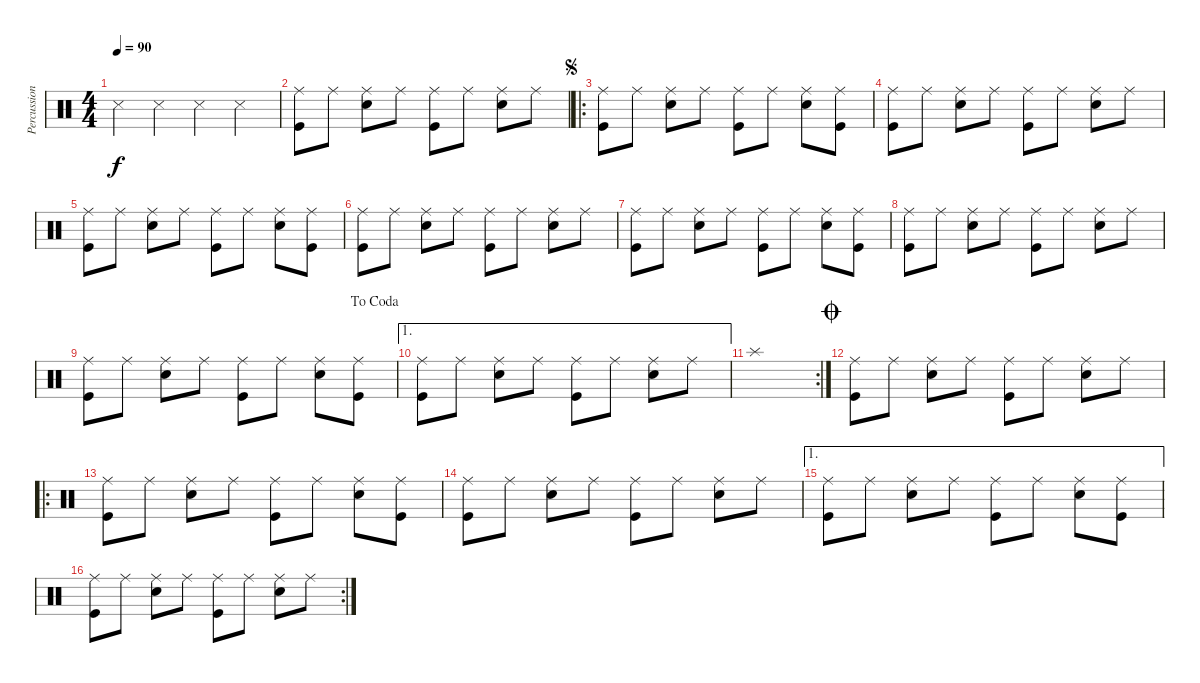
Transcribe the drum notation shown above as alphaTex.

\track ("Percussions" "Percussion") {instrument percussion}
\staff {score}
\articulation defaults
\ts (4 4)
\tempo 90
\clef neutral
\ks c "Snare (side stick) 3".4{dy f} "Snare (side stick) 3".4 "Snare (side stick) 3".4 "Snare (side stick) 3".4
|
("Kick (hit)" "Ride (middle)").8 "Ride (middle)".8 ("Ride (middle)" "Snare (hit) 2").8 "Ride (middle)".8 ("Kick (hit)" "Ride (middle)").8 "Ride (middle)".8 ("Ride (middle)" "Snare (hit) 2").8 "Ride (middle)".8 |
\ro
\jump segno
("Kick (hit)" "Ride (middle)").8 "Ride (middle)".8 ("Ride (middle)" "Snare (hit) 2").8 "Ride (middle)".8 ("Kick (hit)" "Ride (middle)").8 "Ride (middle)".8 ("Ride (middle)" "Snare (hit) 2").8 ("Ride (middle)" "Kick (hit)").8 |
("Kick (hit)" "Ride (middle)").8 "Ride (middle)".8 ("Ride (middle)" "Snare (hit) 2").8 "Ride (middle)".8 ("Kick (hit)" "Ride (middle)").8 "Ride (middle)".8 ("Ride (middle)" "Snare (hit) 2").8 "Ride (middle)".8 |
("Kick (hit)" "Ride (middle)").8 "Ride (middle)".8 ("Ride (middle)" "Snare (hit) 2").8 "Ride (middle)".8 ("Kick (hit)" "Ride (middle)").8 "Ride (middle)".8 ("Ride (middle)" "Snare (hit) 2").8 ("Ride (middle)" "Kick (hit)").8 |
("Kick (hit)" "Ride (middle)").8 "Ride (middle)".8 ("Ride (middle)" "Snare (hit) 2").8 "Ride (middle)".8 ("Kick (hit)" "Ride (middle)").8 "Ride (middle)".8 ("Ride (middle)" "Snare (hit) 2").8 "Ride (middle)".8 |
("Kick (hit)" "Ride (middle)").8 "Ride (middle)".8 ("Ride (middle)" "Snare (hit) 2").8 "Ride (middle)".8 ("Kick (hit)" "Ride (middle)").8 "Ride (middle)".8 ("Ride (middle)" "Snare (hit) 2").8 ("Ride (middle)" "Kick (hit)").8 |
("Kick (hit)" "Ride (middle)").8 "Ride (middle)".8 ("Ride (middle)" "Snare (hit) 2").8 "Ride (middle)".8 ("Kick (hit)" "Ride (middle)").8 "Ride (middle)".8 ("Ride (middle)" "Snare (hit) 2").8 "Ride (middle)".8 |
\jump dacoda
("Kick (hit)" "Ride (middle)").8 "Ride (middle)".8 ("Ride (middle)" "Snare (hit) 2").8 "Ride (middle)".8 ("Kick (hit)" "Ride (middle)").8 "Ride (middle)".8 ("Ride (middle)" "Snare (hit) 2").8 ("Ride (middle)" "Kick (hit)").8 |
\ae 1
("Kick (hit)" "Ride (middle)").8 "Ride (middle)".8 ("Ride (middle)" "Snare (hit) 2").8 "Ride (middle)".8 ("Kick (hit)" "Ride (middle)").8 "Ride (middle)".8 ("Ride (middle)" "Snare (hit) 2").8 "Ride (middle)".8 |
\rc 2 "Splash (hit)".1
|
\jump coda
("Kick (hit)" "Ride (middle)").8 "Ride (middle)".8 ("Ride (middle)" "Snare (hit) 2").8 "Ride (middle)".8 ("Kick (hit)" "Ride (middle)").8 "Ride (middle)".8 ("Ride (middle)" "Snare (hit) 2").8 "Ride (middle)".8 |
\ro
("Kick (hit)" "Ride (middle)").8 "Ride (middle)".8 ("Ride (middle)" "Snare (hit) 2").8 "Ride (middle)".8 ("Kick (hit)" "Ride (middle)").8 "Ride (middle)".8 ("Ride (middle)" "Snare (hit) 2").8 ("Ride (middle)" "Kick (hit)").8 |
("Kick (hit)" "Ride (middle)").8 "Ride (middle)".8 ("Ride (middle)" "Snare (hit) 2").8 "Ride (middle)".8 ("Kick (hit)" "Ride (middle)").8 "Ride (middle)".8 ("Ride (middle)" "Snare (hit) 2").8 "Ride (middle)".8 |
\ae 1
("Kick (hit)" "Ride (middle)").8 "Ride (middle)".8 ("Ride (middle)" "Snare (hit) 2").8 "Ride (middle)".8 ("Kick (hit)" "Ride (middle)").8 "Ride (middle)".8 ("Ride (middle)" "Snare (hit) 2").8 ("Ride (middle)" "Kick (hit)").8 |
\rc 2
("Kick (hit)" "Ride (middle)").8 "Ride (middle)".8 ("Ride (middle)" "Snare (hit) 2").8 "Ride (middle)".8 ("Kick (hit)" "Ride (middle)").8 "Ride (middle)".8 ("Ride (middle)" "Snare (hit) 2").8 "Ride (middle)".8
